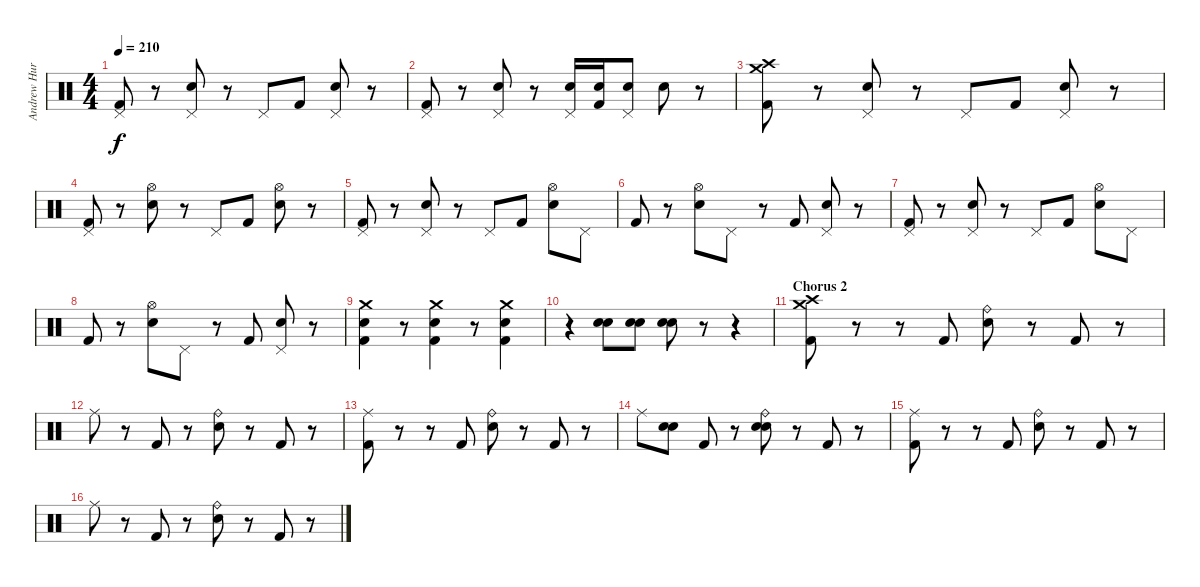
\track ("Andrew Hurley (Drums)" "Andrew Hur") {instrument percussion}
\staff {score}
\articulation defaults
\ts (4 4)
\tempo 210
\clef neutral
\ks c
("Pedal Hi-Hat (hit)" "Kick (hit) 2").8{dy f} r.8 ("Pedal Hi-Hat (hit)" "Electric Snare (hit)").8 r.8 "Pedal Hi-Hat (hit)".8 "Kick (hit) 2".8 ("Pedal Hi-Hat (hit)" "Electric Snare (hit)").8 r.8 |
("Pedal Hi-Hat (hit)" "Kick (hit) 2").8 r.8 ("Pedal Hi-Hat (hit)" "Electric Snare (hit)").8 r.8 ("Pedal Hi-Hat (hit)" "Electric Snare (hit)").16 ("Electric Snare (hit)" "Kick (hit) 2").16 ("Pedal Hi-Hat (hit)" "Electric Snare (hit)").8 "Electric Snare (hit)".8 r.8 |
("Crash high (hit)" "Crash medium (hit)" "Kick (hit) 2").8 r.8 ("Pedal Hi-Hat (hit)" "Electric Snare (hit)").8 r.8 "Pedal Hi-Hat (hit)".8 "Kick (hit) 2".8 ("Pedal Hi-Hat (hit)" "Electric Snare (hit)").8 r.8 |
("Pedal Hi-Hat (hit)" "Kick (hit) 2").8 r.8 ("Hi-Hat (open)" "Electric Snare (hit)").8 r.8 "Pedal Hi-Hat (hit)".8 "Kick (hit) 2".8 ("Hi-Hat (open)" "Electric Snare (hit)").8 r.8 |
("Pedal Hi-Hat (hit)" "Kick (hit) 2").8 r.8 ("Pedal Hi-Hat (hit)" "Electric Snare (hit)").8 r.8 "Pedal Hi-Hat (hit)".8 "Kick (hit) 2".8 ("Hi-Hat (open)" "Electric Snare (hit)").8 "Pedal Hi-Hat (hit)".8 |
"Kick (hit) 2".8 r.8 ("Hi-Hat (open)" "Electric Snare (hit)").8 "Pedal Hi-Hat (hit)".8 r.8 "Kick (hit) 2".8 ("Pedal Hi-Hat (hit)" "Electric Snare (hit)").8 r.8 |
("Pedal Hi-Hat (hit)" "Kick (hit) 2").8 r.8 ("Pedal Hi-Hat (hit)" "Electric Snare (hit)").8 r.8 "Pedal Hi-Hat (hit)".8 "Kick (hit) 2".8 ("Hi-Hat (open)" "Electric Snare (hit)").8 "Pedal Hi-Hat (hit)".8 |
"Kick (hit) 2".8 r.8 ("Hi-Hat (open)" "Electric Snare (hit)").8 "Pedal Hi-Hat (hit)".8 r.8 "Kick (hit) 2".8 ("Pedal Hi-Hat (hit)" "Electric Snare (hit)").8 r.8 |
("Crash medium (hit)" "Electric Snare (hit)" "Kick (hit) 2").4 r.8 ("Crash medium (hit)" "Electric Snare (hit)" "Kick (hit) 2").4 r.8 ("Crash medium (hit)" "Electric Snare (hit)" "Kick (hit) 2").4 |
r.4 ("Electric Snare (hit)" "Electric Snare (hit)").8 ("Electric Snare (hit)" "Electric Snare (hit)").8 ("Electric Snare (hit)" "Electric Snare (hit)").8 r.8 r.4 |
\section ("" "Chorus 2")
("Crash medium (hit)" "Crash high (hit)" "Kick (hit) 2").8 r.8 r.8 "Kick (hit) 2".8 ("Ride (bell)" "Electric Snare (hit)").8 r.8 "Kick (hit) 2".8 r.8 |
"Ride (middle)".8 r.8 "Kick (hit) 2".8 r.8 ("Ride (bell)" "Electric Snare (hit)").8 r.8 "Kick (hit) 2".8 r.8 |
("Ride (middle)" "Kick (hit) 2").8 r.8 r.8 "Kick (hit) 2".8 ("Ride (bell)" "Electric Snare (hit)").8 r.8 "Kick (hit) 2".8 r.8 |
"Ride (middle)".8 ("Snare (hit) 2" "Electric Snare (hit)").8 "Kick (hit) 2".8 r.8 ("Ride (bell)" "Snare (hit) 2" "Electric Snare (hit)").8 r.8 "Kick (hit) 2".8 r.8 |
("Ride (middle)" "Kick (hit) 2").8 r.8 r.8 "Kick (hit) 2".8 ("Ride (bell)" "Electric Snare (hit)").8 r.8 "Kick (hit) 2".8 r.8 |
"Ride (middle)".8 r.8 "Kick (hit) 2".8 r.8 ("Ride (bell)" "Electric Snare (hit)").8 r.8 "Kick (hit) 2".8 r.8
